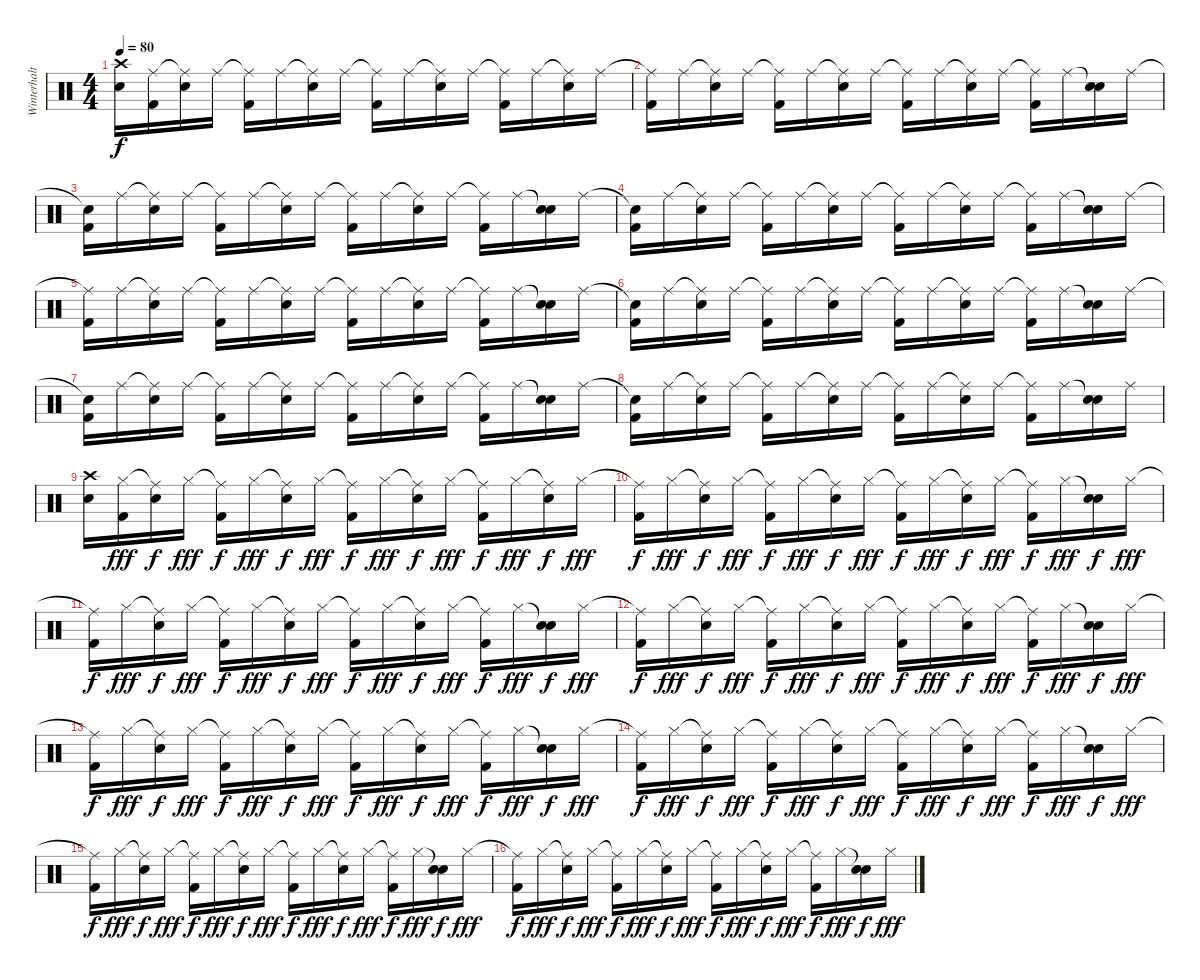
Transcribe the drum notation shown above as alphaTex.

\track ("Winterhalten" "Winterhalt") {instrument percussion}
\staff {score}
\articulation defaults
\ts (4 4)
\tempo 80
\clef neutral
\ks c
("Crash high (hit)" "Snare (hit) 2").16{dy f} ("Ride (middle)" "Kick (hit) 2").16 ("Ride (middle)"{t} "Snare (hit) 2").16 "Ride (middle)".16 ("Ride (middle)"{t} "Kick (hit) 2").16 "Ride (middle)".16 ("Ride (middle)"{t} "Snare (hit) 2").16 "Ride (middle)".16 ("Ride (middle)"{t} "Kick (hit) 2").16 "Ride (middle)".16 ("Ride (middle)"{t} "Snare (hit) 2").16 "Ride (middle)".16 ("Ride (middle)"{t} "Kick (hit) 2").16 "Ride (middle)".16 ("Ride (middle)"{t} "Snare (hit) 2").16 "Ride (middle)".16 |
("Ride (middle)"{t} "Kick (hit) 2").16 "Ride (middle)".16 ("Ride (middle)"{t} "Snare (hit) 2").16 "Ride (middle)".16 ("Ride (middle)"{t} "Kick (hit) 2").16 "Ride (middle)".16 ("Ride (middle)"{t} "Snare (hit) 2").16 "Ride (middle)".16 ("Ride (middle)"{t} "Kick (hit) 2").16 "Ride (middle)".16 ("Ride (middle)"{t} "Snare (hit) 2").16 "Ride (middle)".16 ("Ride (middle)"{t} "Kick (hit) 2").16 "Ride (middle)".16 ("Snare (hit)"{t} "Snare (hit) 2").16 "Ride (middle)".16 |
("Snare (hit)"{t} "Kick (hit) 2").16 "Ride (middle)".16 ("Ride (middle)"{t} "Snare (hit) 2").16 "Ride (middle)".16 ("Ride (middle)"{t} "Kick (hit) 2").16 "Ride (middle)".16 ("Ride (middle)"{t} "Snare (hit) 2").16 "Ride (middle)".16 ("Ride (middle)"{t} "Kick (hit) 2").16 "Ride (middle)".16 ("Ride (middle)"{t} "Snare (hit) 2").16 "Ride (middle)".16 ("Ride (middle)"{t} "Kick (hit) 2").16 "Ride (middle)".16 ("Snare (hit)"{t} "Snare (hit) 2").16 "Ride (middle)".16 |
("Snare (hit)"{t} "Kick (hit) 2").16 "Ride (middle)".16 ("Ride (middle)"{t} "Snare (hit) 2").16 "Ride (middle)".16 ("Ride (middle)"{t} "Kick (hit) 2").16 "Ride (middle)".16 ("Ride (middle)"{t} "Snare (hit) 2").16 "Ride (middle)".16 ("Ride (middle)"{t} "Kick (hit) 2").16 "Ride (middle)".16 ("Ride (middle)"{t} "Snare (hit) 2").16 "Ride (middle)".16 ("Ride (middle)"{t} "Kick (hit) 2").16 "Ride (middle)".16 ("Snare (hit)"{t} "Snare (hit) 2").16 "Ride (middle)".16 |
("Ride (middle)"{t} "Kick (hit) 2").16 "Ride (middle)".16 ("Ride (middle)"{t} "Snare (hit) 2").16 "Ride (middle)".16 ("Ride (middle)"{t} "Kick (hit) 2").16 "Ride (middle)".16 ("Ride (middle)"{t} "Snare (hit) 2").16 "Ride (middle)".16 ("Ride (middle)"{t} "Kick (hit) 2").16 "Ride (middle)".16 ("Ride (middle)"{t} "Snare (hit) 2").16 "Ride (middle)".16 ("Ride (middle)"{t} "Kick (hit) 2").16 "Ride (middle)".16 ("Snare (hit)"{t} "Snare (hit) 2").16 "Ride (middle)".16 |
("Snare (hit)"{t} "Kick (hit) 2").16 "Ride (middle)".16 ("Ride (middle)"{t} "Snare (hit) 2").16 "Ride (middle)".16 ("Ride (middle)"{t} "Kick (hit) 2").16 "Ride (middle)".16 ("Ride (middle)"{t} "Snare (hit) 2").16 "Ride (middle)".16 ("Ride (middle)"{t} "Kick (hit) 2").16 "Ride (middle)".16 ("Ride (middle)"{t} "Snare (hit) 2").16 "Ride (middle)".16 ("Ride (middle)"{t} "Kick (hit) 2").16 "Ride (middle)".16 ("Snare (hit)"{t} "Snare (hit) 2").16 "Ride (middle)".16 |
("Snare (hit)"{t} "Kick (hit) 2").16 "Ride (middle)".16 ("Ride (middle)"{t} "Snare (hit) 2").16 "Ride (middle)".16 ("Ride (middle)"{t} "Kick (hit) 2").16 "Ride (middle)".16 ("Ride (middle)"{t} "Snare (hit) 2").16 "Ride (middle)".16 ("Ride (middle)"{t} "Kick (hit) 2").16 "Ride (middle)".16 ("Ride (middle)"{t} "Snare (hit) 2").16 "Ride (middle)".16 ("Ride (middle)"{t} "Kick (hit) 2").16 "Ride (middle)".16 ("Snare (hit)"{t} "Snare (hit) 2").16 "Ride (middle)".16 |
("Snare (hit)"{t} "Kick (hit) 2").16 "Ride (middle)".16 ("Ride (middle)"{t} "Snare (hit) 2").16 "Ride (middle)".16 ("Ride (middle)"{t} "Kick (hit) 2").16 "Ride (middle)".16 ("Ride (middle)"{t} "Snare (hit) 2").16 "Ride (middle)".16 ("Ride (middle)"{t} "Kick (hit) 2").16 "Ride (middle)".16 ("Ride (middle)"{t} "Snare (hit) 2").16 "Ride (middle)".16 ("Ride (middle)"{t} "Kick (hit) 2").16 "Ride (middle)".16 ("Snare (hit)"{t} "Snare (hit) 2").16 "Ride (middle)".16 |
("Crash high (hit)" "Snare (hit) 2").16 ("Hi-Hat (closed)" "Kick (hit) 2").16{dy fff} ("Ride (middle)"{t} "Snare (hit) 2").16{dy f} "Hi-Hat (closed)".16{dy fff} ("Ride (middle)"{t} "Kick (hit) 2").16{dy f} "Hi-Hat (closed)".16{dy fff} ("Ride (middle)"{t} "Snare (hit) 2").16{dy f} "Hi-Hat (closed)".16{dy fff} ("Ride (middle)"{t} "Kick (hit) 2").16{dy f} "Hi-Hat (closed)".16{dy fff} ("Ride (middle)"{t} "Snare (hit) 2").16{dy f} "Hi-Hat (closed)".16{dy fff} ("Ride (middle)"{t} "Kick (hit) 2").16{dy f} "Hi-Hat (closed)".16{dy fff} ("Ride (middle)"{t} "Snare (hit) 2").16{dy f} "Hi-Hat (closed)".16{dy fff} |
("Ride (middle)"{t} "Kick (hit) 2").16{dy f} "Hi-Hat (closed)".16{dy fff} ("Ride (middle)"{t} "Snare (hit) 2").16{dy f} "Hi-Hat (closed)".16{dy fff} ("Ride (middle)"{t} "Kick (hit) 2").16{dy f} "Hi-Hat (closed)".16{dy fff} ("Ride (middle)"{t} "Snare (hit) 2").16{dy f} "Hi-Hat (closed)".16{dy fff} ("Ride (middle)"{t} "Kick (hit) 2").16{dy f} "Hi-Hat (closed)".16{dy fff} ("Ride (middle)"{t} "Snare (hit) 2").16{dy f} "Hi-Hat (closed)".16{dy fff} ("Ride (middle)"{t} "Kick (hit) 2").16{dy f} "Hi-Hat (closed)".16{dy fff} ("Snare (hit)"{t} "Snare (hit) 2").16{dy f} "Hi-Hat (closed)".16{dy fff} |
("Ride (middle)"{t} "Kick (hit) 2").16{dy f} "Hi-Hat (closed)".16{dy fff} ("Ride (middle)"{t} "Snare (hit) 2").16{dy f} "Hi-Hat (closed)".16{dy fff} ("Ride (middle)"{t} "Kick (hit) 2").16{dy f} "Hi-Hat (closed)".16{dy fff} ("Ride (middle)"{t} "Snare (hit) 2").16{dy f} "Hi-Hat (closed)".16{dy fff} ("Ride (middle)"{t} "Kick (hit) 2").16{dy f} "Hi-Hat (closed)".16{dy fff} ("Ride (middle)"{t} "Snare (hit) 2").16{dy f} "Hi-Hat (closed)".16{dy fff} ("Ride (middle)"{t} "Kick (hit) 2").16{dy f} "Hi-Hat (closed)".16{dy fff} ("Snare (hit)"{t} "Snare (hit) 2").16{dy f} "Hi-Hat (closed)".16{dy fff} |
("Ride (middle)"{t} "Kick (hit) 2").16{dy f} "Hi-Hat (closed)".16{dy fff} ("Ride (middle)"{t} "Snare (hit) 2").16{dy f} "Hi-Hat (closed)".16{dy fff} ("Ride (middle)"{t} "Kick (hit) 2").16{dy f} "Hi-Hat (closed)".16{dy fff} ("Ride (middle)"{t} "Snare (hit) 2").16{dy f} "Hi-Hat (closed)".16{dy fff} ("Ride (middle)"{t} "Kick (hit) 2").16{dy f} "Hi-Hat (closed)".16{dy fff} ("Ride (middle)"{t} "Snare (hit) 2").16{dy f} "Hi-Hat (closed)".16{dy fff} ("Ride (middle)"{t} "Kick (hit) 2").16{dy f} "Hi-Hat (closed)".16{dy fff} ("Snare (hit)"{t} "Snare (hit) 2").16{dy f} "Hi-Hat (closed)".16{dy fff} |
("Ride (middle)"{t} "Kick (hit) 2").16{dy f} "Hi-Hat (closed)".16{dy fff} ("Ride (middle)"{t} "Snare (hit) 2").16{dy f} "Hi-Hat (closed)".16{dy fff} ("Ride (middle)"{t} "Kick (hit) 2").16{dy f} "Hi-Hat (closed)".16{dy fff} ("Ride (middle)"{t} "Snare (hit) 2").16{dy f} "Hi-Hat (closed)".16{dy fff} ("Ride (middle)"{t} "Kick (hit) 2").16{dy f} "Hi-Hat (closed)".16{dy fff} ("Ride (middle)"{t} "Snare (hit) 2").16{dy f} "Hi-Hat (closed)".16{dy fff} ("Ride (middle)"{t} "Kick (hit) 2").16{dy f} "Hi-Hat (closed)".16{dy fff} ("Snare (hit)"{t} "Snare (hit) 2").16{dy f} "Hi-Hat (closed)".16{dy fff} |
("Ride (middle)"{t} "Kick (hit) 2").16{dy f} "Hi-Hat (closed)".16{dy fff} ("Ride (middle)"{t} "Snare (hit) 2").16{dy f} "Hi-Hat (closed)".16{dy fff} ("Ride (middle)"{t} "Kick (hit) 2").16{dy f} "Hi-Hat (closed)".16{dy fff} ("Ride (middle)"{t} "Snare (hit) 2").16{dy f} "Hi-Hat (closed)".16{dy fff} ("Ride (middle)"{t} "Kick (hit) 2").16{dy f} "Hi-Hat (closed)".16{dy fff} ("Ride (middle)"{t} "Snare (hit) 2").16{dy f} "Hi-Hat (closed)".16{dy fff} ("Ride (middle)"{t} "Kick (hit) 2").16{dy f} "Hi-Hat (closed)".16{dy fff} ("Snare (hit)"{t} "Snare (hit) 2").16{dy f} "Hi-Hat (closed)".16{dy fff} |
("Ride (middle)"{t} "Kick (hit) 2").16{dy f} "Hi-Hat (closed)".16{dy fff} ("Ride (middle)"{t} "Snare (hit) 2").16{dy f} "Hi-Hat (closed)".16{dy fff} ("Ride (middle)"{t} "Kick (hit) 2").16{dy f} "Hi-Hat (closed)".16{dy fff} ("Ride (middle)"{t} "Snare (hit) 2").16{dy f} "Hi-Hat (closed)".16{dy fff} ("Ride (middle)"{t} "Kick (hit) 2").16{dy f} "Hi-Hat (closed)".16{dy fff} ("Ride (middle)"{t} "Snare (hit) 2").16{dy f} "Hi-Hat (closed)".16{dy fff} ("Ride (middle)"{t} "Kick (hit) 2").16{dy f} "Hi-Hat (closed)".16{dy fff} ("Snare (hit)"{t} "Snare (hit) 2").16{dy f} "Hi-Hat (closed)".16{dy fff} |
("Ride (middle)"{t} "Kick (hit) 2").16{dy f} "Hi-Hat (closed)".16{dy fff} ("Ride (middle)"{t} "Snare (hit) 2").16{dy f} "Hi-Hat (closed)".16{dy fff} ("Ride (middle)"{t} "Kick (hit) 2").16{dy f} "Hi-Hat (closed)".16{dy fff} ("Ride (middle)"{t} "Snare (hit) 2").16{dy f} "Hi-Hat (closed)".16{dy fff} ("Ride (middle)"{t} "Kick (hit) 2").16{dy f} "Hi-Hat (closed)".16{dy fff} ("Ride (middle)"{t} "Snare (hit) 2").16{dy f} "Hi-Hat (closed)".16{dy fff} ("Ride (middle)"{t} "Kick (hit) 2").16{dy f} "Hi-Hat (closed)".16{dy fff} ("Snare (hit)"{t} "Snare (hit) 2").16{dy f} "Hi-Hat (closed)".16{dy fff}
